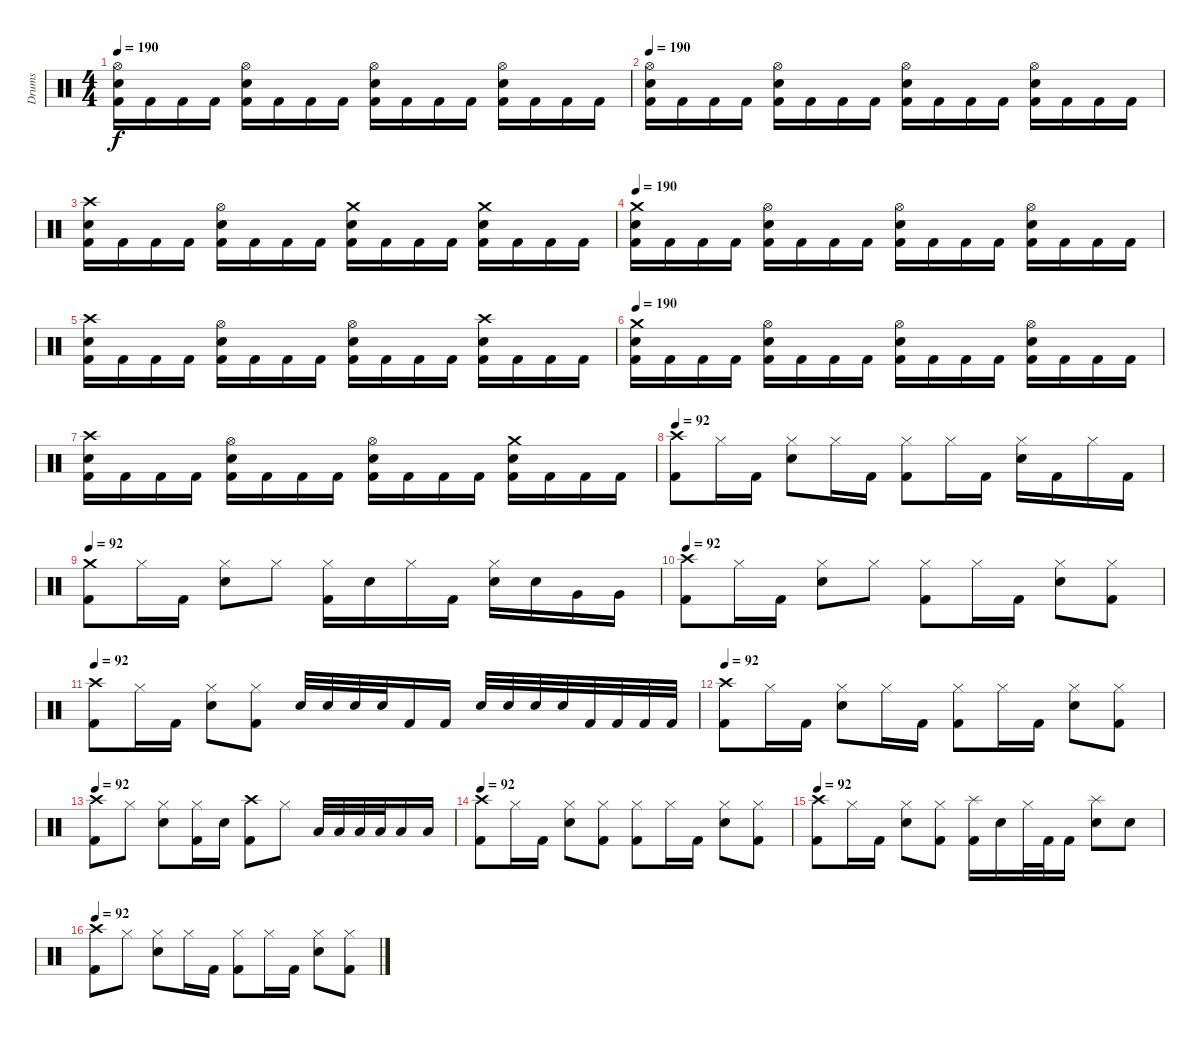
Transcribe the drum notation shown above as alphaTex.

\track ("Drums" "Drums") {instrument percussion}
\staff {score}
\articulation defaults
\ts (4 4)
\tempo 190
\clef neutral
\ks c
("Hi-Hat (open)" "Electric Snare (hit)" "Kick (hit) 2").16{dy f} "Kick (hit) 2".16 "Kick (hit) 2".16 "Kick (hit) 2".16 ("Hi-Hat (open)" "Electric Snare (hit)" "Kick (hit) 2").16 "Kick (hit) 2".16 "Kick (hit) 2".16 "Kick (hit) 2".16 ("Hi-Hat (open)" "Electric Snare (hit)" "Kick (hit) 2").16 "Kick (hit) 2".16 "Kick (hit) 2".16 "Kick (hit) 2".16 ("Hi-Hat (open)" "Electric Snare (hit)" "Kick (hit) 2").16 "Kick (hit) 2".16 "Kick (hit) 2".16 "Kick (hit) 2".16 |
\tempo 190
("Hi-Hat (open)" "Electric Snare (hit)" "Kick (hit) 2").16 "Kick (hit) 2".16 "Kick (hit) 2".16 "Kick (hit) 2".16 ("Hi-Hat (open)" "Electric Snare (hit)" "Kick (hit) 2").16 "Kick (hit) 2".16 "Kick (hit) 2".16 "Kick (hit) 2".16 ("Hi-Hat (open)" "Electric Snare (hit)" "Kick (hit) 2").16 "Kick (hit) 2".16 "Kick (hit) 2".16 "Kick (hit) 2".16 ("Hi-Hat (open)" "Electric Snare (hit)" "Kick (hit) 2").16 "Kick (hit) 2".16 "Kick (hit) 2".16 "Kick (hit) 2".16 |
("Crash high (hit)" "Electric Snare (hit)" "Kick (hit) 2").16 "Kick (hit) 2".16 "Kick (hit) 2".16 "Kick (hit) 2".16 ("Hi-Hat (open)" "Electric Snare (hit)" "Kick (hit) 2").16 "Kick (hit) 2".16 "Kick (hit) 2".16 "Kick (hit) 2".16 ("Crash medium (hit)" "Electric Snare (hit)" "Kick (hit) 2").16 "Kick (hit) 2".16 "Kick (hit) 2".16 "Kick (hit) 2".16 ("Crash medium (hit)" "Electric Snare (hit)" "Kick (hit) 2").16 "Kick (hit) 2".16 "Kick (hit) 2".16 "Kick (hit) 2".16 |
\tempo 190
("Crash medium (hit)" "Electric Snare (hit)" "Kick (hit) 2").16 "Kick (hit) 2".16 "Kick (hit) 2".16 "Kick (hit) 2".16 ("Hi-Hat (open)" "Electric Snare (hit)" "Kick (hit) 2").16 "Kick (hit) 2".16 "Kick (hit) 2".16 "Kick (hit) 2".16 ("Hi-Hat (open)" "Electric Snare (hit)" "Kick (hit) 2").16 "Kick (hit) 2".16 "Kick (hit) 2".16 "Kick (hit) 2".16 ("Hi-Hat (open)" "Electric Snare (hit)" "Kick (hit) 2").16 "Kick (hit) 2".16 "Kick (hit) 2".16 "Kick (hit) 2".16 |
("Crash high (hit)" "Electric Snare (hit)" "Kick (hit) 2").16 "Kick (hit) 2".16 "Kick (hit) 2".16 "Kick (hit) 2".16 ("Hi-Hat (open)" "Electric Snare (hit)" "Kick (hit) 2").16 "Kick (hit) 2".16 "Kick (hit) 2".16 "Kick (hit) 2".16 ("Hi-Hat (open)" "Electric Snare (hit)" "Kick (hit) 2").16 "Kick (hit) 2".16 "Kick (hit) 2".16 "Kick (hit) 2".16 ("Crash high (hit)" "Electric Snare (hit)" "Kick (hit) 2").16 "Kick (hit) 2".16 "Kick (hit) 2".16 "Kick (hit) 2".16 |
\tempo 190
("Crash medium (hit)" "Electric Snare (hit)" "Kick (hit) 2").16 "Kick (hit) 2".16 "Kick (hit) 2".16 "Kick (hit) 2".16 ("Hi-Hat (open)" "Electric Snare (hit)" "Kick (hit) 2").16 "Kick (hit) 2".16 "Kick (hit) 2".16 "Kick (hit) 2".16 ("Hi-Hat (open)" "Electric Snare (hit)" "Kick (hit) 2").16 "Kick (hit) 2".16 "Kick (hit) 2".16 "Kick (hit) 2".16 ("Hi-Hat (open)" "Electric Snare (hit)" "Kick (hit) 2").16 "Kick (hit) 2".16 "Kick (hit) 2".16 "Kick (hit) 2".16 |
("Crash high (hit)" "Electric Snare (hit)" "Kick (hit) 2").16 "Kick (hit) 2".16 "Kick (hit) 2".16 "Kick (hit) 2".16 ("Hi-Hat (open)" "Electric Snare (hit)" "Kick (hit) 2").16 "Kick (hit) 2".16 "Kick (hit) 2".16 "Kick (hit) 2".16 ("Hi-Hat (open)" "Electric Snare (hit)" "Kick (hit) 2").16 "Kick (hit) 2".16 "Kick (hit) 2".16 "Kick (hit) 2".16 ("Crash medium (hit)" "Electric Snare (hit)" "Kick (hit) 2").16 "Kick (hit) 2".16 "Kick (hit) 2".16 "Kick (hit) 2".16 |
\tempo 92
("Crash high (hit)" "Kick (hit) 2").8 "Hi-Hat (closed)".16 "Kick (hit) 2".16 ("Hi-Hat (closed)" "Electric Snare (hit)").8 "Hi-Hat (closed)".16 "Kick (hit) 2".16 ("Hi-Hat (closed)" "Kick (hit) 2").8 "Hi-Hat (closed)".16 "Kick (hit) 2".16 ("Hi-Hat (closed)" "Electric Snare (hit)").16 "Kick (hit) 2".16 "Hi-Hat (closed)".16 "Kick (hit) 2".16 |
\tempo 92
("Crash medium (hit)" "Kick (hit) 2").8 "Hi-Hat (closed)".16 "Kick (hit) 2".16 ("Hi-Hat (closed)" "Electric Snare (hit)").8 "Hi-Hat (closed)".8 ("Hi-Hat (closed)" "Kick (hit) 2").16 "Electric Snare (hit)".16 "Hi-Hat (closed)".16 "Kick (hit) 2".16 ("Hi-Hat (closed)" "Electric Snare (hit)").16 "Electric Snare (hit)".16 "Very Low Tom (hit)".16 "Very Low Tom (hit)".16 |
\tempo 92
("Crash high (hit)" "Kick (hit) 2").8 "Hi-Hat (closed)".16 "Kick (hit) 2".16 ("Hi-Hat (closed)" "Electric Snare (hit)").8 "Hi-Hat (closed)".8 ("Hi-Hat (closed)" "Kick (hit) 2").8 "Hi-Hat (closed)".16 "Kick (hit) 2".16 ("Hi-Hat (closed)" "Electric Snare (hit)").8 ("Hi-Hat (closed)" "Kick (hit) 2").8 |
\tempo 92
("Crash high (hit)" "Kick (hit) 2").8 "Hi-Hat (closed)".16 "Kick (hit) 2".16 ("Hi-Hat (closed)" "Electric Snare (hit)").8 ("Hi-Hat (closed)" "Kick (hit) 2").8 "Electric Snare (hit)".32 "Electric Snare (hit)".32 "Electric Snare (hit)".32 "Electric Snare (hit)".32 "Kick (hit) 2".16 "Kick (hit) 2".16 "Electric Snare (hit)".32 "Electric Snare (hit)".32 "Electric Snare (hit)".32 "Electric Snare (hit)".32 "Kick (hit) 2".32 "Kick (hit) 2".32 "Kick (hit) 2".32 "Kick (hit) 2".32 |
\tempo 92
("Crash high (hit)" "Kick (hit) 2").8 "Hi-Hat (closed)".16 "Kick (hit) 2".16 ("Hi-Hat (closed)" "Electric Snare (hit)").8 "Hi-Hat (closed)".16 "Kick (hit) 2".16 ("Hi-Hat (closed)" "Kick (hit) 2").8 "Hi-Hat (closed)".16 "Kick (hit) 2".16 ("Hi-Hat (closed)" "Electric Snare (hit)").8 ("Hi-Hat (closed)" "Kick (hit) 2").8 |
\tempo 92
("Crash high (hit)" "Kick (hit) 2").8 "Hi-Hat (closed)".8 ("Hi-Hat (closed)" "Electric Snare (hit)").8 ("Hi-Hat (closed)" "Kick (hit) 2").16 "Electric Snare (hit)".16 ("Crash high (hit)" "Kick (hit) 2").8 "Hi-Hat (closed)".8 "Low Tom (hit)".32 "Low Tom (hit)".32 "Low Tom (hit)".32 "Low Tom (hit)".32 "Low Tom (hit)".16 "Low Tom (hit)".16 |
\tempo 92
("Crash high (hit)" "Kick (hit) 2").8 "Hi-Hat (closed)".16 "Kick (hit) 2".16 ("Hi-Hat (closed)" "Electric Snare (hit)").8 ("Hi-Hat (closed)" "Kick (hit) 2").8 ("Hi-Hat (closed)" "Kick (hit) 2").8 "Hi-Hat (closed)".16 "Kick (hit) 2".16 ("Hi-Hat (closed)" "Electric Snare (hit)").8 ("Hi-Hat (closed)" "Kick (hit) 2").8 |
\tempo 92
("Crash high (hit)" "Kick (hit) 2").8 "Hi-Hat (closed)".16 "Kick (hit) 2".16 ("Hi-Hat (closed)" "Electric Snare (hit)").8 ("Hi-Hat (closed)" "Kick (hit) 2").8 ("Splash (hit)" "Kick (hit) 2").16 "Electric Snare (hit)".16 "Hi-Hat (closed)".32 "Kick (hit) 2".32 "Kick (hit) 2".16 ("Splash (hit)" "Electric Snare (hit)").8 "Electric Snare (hit)".8 |
\tempo 92
("Crash high (hit)" "Kick (hit) 2").8 "Hi-Hat (closed)".8 ("Hi-Hat (closed)" "Electric Snare (hit)").8 "Hi-Hat (closed)".16 "Kick (hit) 2".16 ("Hi-Hat (closed)" "Kick (hit) 2").8 "Hi-Hat (closed)".16 "Kick (hit) 2".16 ("Hi-Hat (closed)" "Electric Snare (hit)").8 ("Hi-Hat (closed)" "Kick (hit) 2").8
